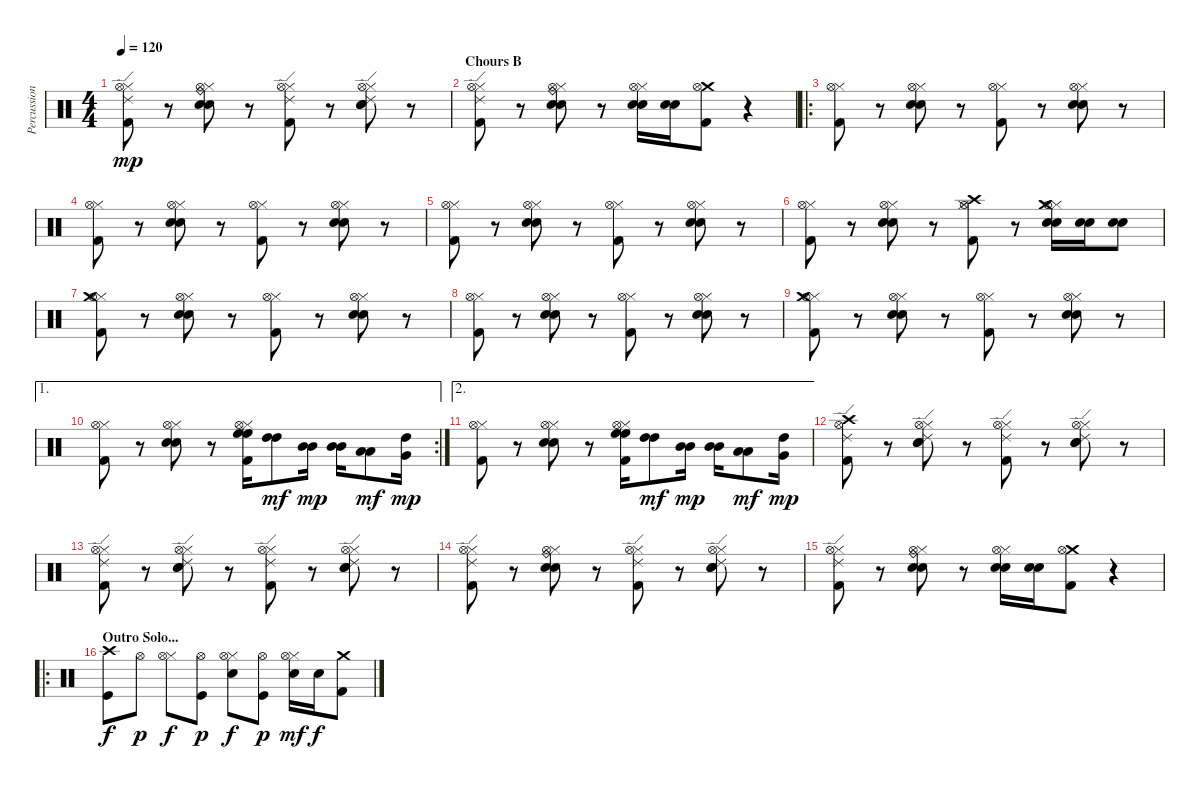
\track ("Percussion" "Percussion") {instrument percussion}
\staff {score}
\articulation defaults
\ts (4 4)
\tempo 120
\clef neutral
\ks c
("Hi-Hat (closed)" "Hi-Hat (open)" "Ride (edge) 2" "Kick (hit) 2").8{dy mp} r.8 ("Hi-Hat (closed)" "Hi-Hat (open)" "Ride (bell)" "Electric Snare (hit)" "Snare (hit) 2").8 r.8 ("Hi-Hat (closed)" "Hi-Hat (open)" "Ride (edge) 2" "Kick (hit) 2").8 r.8 ("Hi-Hat (closed)" "Hi-Hat (open)" "Ride (edge) 2" "Electric Snare (hit)" "Snare (hit) 2").8 r.8 |
\section ("" "Chours B")
("Hi-Hat (closed)" "Hi-Hat (open)" "Ride (edge) 2" "Kick (hit) 2").8 r.8 ("Hi-Hat (closed)" "Hi-Hat (open)" "Ride (bell)" "Electric Snare (hit)" "Snare (hit) 2").8 r.8 ("Hi-Hat (closed)" "Hi-Hat (open)" "Electric Snare (hit)" "Snare (hit) 2").16 ("Electric Snare (hit)" "Snare (hit) 2").16 ("Crash medium (hit)" "Hi-Hat (open)" "Kick (hit) 2").8 r.4 |
\ro
("Hi-Hat (closed)" "Hi-Hat (open)" "Kick (hit) 2").8 r.8 ("Hi-Hat (closed)" "Hi-Hat (open)" "Electric Snare (hit)" "Snare (hit) 2").8 r.8 ("Hi-Hat (closed)" "Hi-Hat (open)" "Kick (hit) 2").8 r.8 ("Hi-Hat (closed)" "Hi-Hat (open)" "Electric Snare (hit)" "Snare (hit) 2").8 r.8 |
("Hi-Hat (closed)" "Hi-Hat (open)" "Kick (hit) 2").8 r.8 ("Hi-Hat (closed)" "Hi-Hat (open)" "Electric Snare (hit)" "Snare (hit) 2").8 r.8 ("Hi-Hat (closed)" "Hi-Hat (open)" "Kick (hit) 2").8 r.8 ("Hi-Hat (closed)" "Hi-Hat (open)" "Electric Snare (hit)" "Snare (hit) 2").8 r.8 |
("Hi-Hat (closed)" "Hi-Hat (open)" "Kick (hit) 2").8 r.8 ("Hi-Hat (closed)" "Hi-Hat (open)" "Electric Snare (hit)" "Snare (hit) 2").8 r.8 ("Hi-Hat (closed)" "Hi-Hat (open)" "Kick (hit) 2").8 r.8 ("Hi-Hat (closed)" "Hi-Hat (open)" "Electric Snare (hit)" "Snare (hit) 2").8 r.8 |
("Hi-Hat (closed)" "Hi-Hat (open)" "Kick (hit) 2").8 r.8 ("Hi-Hat (closed)" "Hi-Hat (open)" "Electric Snare (hit)" "Snare (hit) 2").8 r.8 ("Hi-Hat (closed)" "Hi-Hat (open)" "Crash high (hit)" "Kick (hit) 2").8 r.8 ("Hi-Hat (closed)" "Hi-Hat (open)" "Crash medium (hit)" "Electric Snare (hit)" "Snare (hit) 2").16 ("Electric Snare (hit)" "Snare (hit) 2").16 ("Electric Snare (hit)" "Snare (hit) 2").8 |
("Hi-Hat (closed)" "Hi-Hat (open)" "Crash medium (hit)" "Kick (hit) 2").8 r.8 ("Hi-Hat (closed)" "Hi-Hat (open)" "Electric Snare (hit)" "Snare (hit) 2").8 r.8 ("Hi-Hat (closed)" "Hi-Hat (open)" "Kick (hit) 2").8 r.8 ("Hi-Hat (closed)" "Hi-Hat (open)" "Electric Snare (hit)" "Snare (hit) 2").8 r.8 |
("Hi-Hat (closed)" "Hi-Hat (open)" "Kick (hit) 2").8 r.8 ("Hi-Hat (closed)" "Hi-Hat (open)" "Electric Snare (hit)" "Snare (hit) 2").8 r.8 ("Hi-Hat (closed)" "Hi-Hat (open)" "Kick (hit) 2").8 r.8 ("Hi-Hat (closed)" "Hi-Hat (open)" "Electric Snare (hit)" "Snare (hit) 2").8 r.8 |
("Hi-Hat (closed)" "Hi-Hat (open)" "Crash medium (hit)" "Kick (hit) 2").8 r.8 ("Hi-Hat (closed)" "Hi-Hat (open)" "Electric Snare (hit)" "Snare (hit) 2").8 r.8 ("Hi-Hat (closed)" "Hi-Hat (open)" "Kick (hit) 2").8 r.8 ("Hi-Hat (closed)" "Hi-Hat (open)" "Electric Snare (hit)" "Snare (hit) 2").8 r.8 |
\ae 1
\rc 2
("Hi-Hat (closed)" "Hi-Hat (open)" "Kick (hit) 2").8 r.8 ("Hi-Hat (closed)" "Hi-Hat (open)" "Electric Snare (hit)" "Snare (hit) 2").8 r.8 ("Hi-Hat (closed)" "Hi-Hat (open)" "High Floor Tom (hit)" "High Floor Tom (hit)" "Kick (hit) 2").16 ("High Tom (hit)" "High Tom (hit)").8{dy mf} ("Mid Tom (hit)" "Mid Tom (hit)").16{dy mp} ("Mid Tom (hit)" "Mid Tom (hit)").16 ("Low Tom (hit)" "Low Tom (hit)").8{dy mf} ("High Tom (hit)" "Very Low Tom (hit)").16{dy mp} |
\ae 2
("Hi-Hat (closed)" "Hi-Hat (open)" "Kick (hit) 2").8 r.8 ("Hi-Hat (closed)" "Hi-Hat (open)" "Electric Snare (hit)" "Snare (hit) 2").8 r.8 ("Hi-Hat (closed)" "Hi-Hat (open)" "High Floor Tom (hit)" "High Floor Tom (hit)" "Kick (hit) 2").16 ("High Tom (hit)" "High Tom (hit)").8{dy mf} ("Mid Tom (hit)" "Mid Tom (hit)").16{dy mp} ("Mid Tom (hit)" "Mid Tom (hit)").16 ("Low Tom (hit)" "Low Tom (hit)").8{dy mf} ("High Tom (hit)" "Very Low Tom (hit)").16{dy mp} |
("Crash high (hit)" "Hi-Hat (open)" "Ride (edge) 2" "Kick (hit) 2").8 r.8 ("Hi-Hat (closed)" "Hi-Hat (open)" "Ride (edge) 2" "Electric Snare (hit)" "Snare (hit) 2").8 r.8 ("Hi-Hat (closed)" "Hi-Hat (open)" "Ride (edge) 2" "Kick (hit) 2").8 r.8 ("Hi-Hat (closed)" "Hi-Hat (open)" "Ride (edge) 2" "Electric Snare (hit)" "Snare (hit) 2").8 r.8 |
("Hi-Hat (closed)" "Hi-Hat (open)" "Ride (edge) 2" "Kick (hit) 2").8 r.8 ("Hi-Hat (closed)" "Hi-Hat (open)" "Ride (edge) 2" "Electric Snare (hit)" "Snare (hit) 2").8 r.8 ("Hi-Hat (closed)" "Hi-Hat (open)" "Ride (edge) 2" "Kick (hit) 2").8 r.8 ("Hi-Hat (closed)" "Hi-Hat (open)" "Ride (edge) 2" "Electric Snare (hit)" "Snare (hit) 2").8 r.8 |
("Hi-Hat (closed)" "Hi-Hat (open)" "Ride (edge) 2" "Kick (hit) 2").8 r.8 ("Hi-Hat (closed)" "Hi-Hat (open)" "Ride (bell)" "Electric Snare (hit)" "Snare (hit) 2").8 r.8 ("Hi-Hat (closed)" "Hi-Hat (open)" "Ride (edge) 2" "Kick (hit) 2").8 r.8 ("Hi-Hat (closed)" "Hi-Hat (open)" "Ride (edge) 2" "Electric Snare (hit)" "Snare (hit) 2").8 r.8 |
("Hi-Hat (closed)" "Hi-Hat (open)" "Ride (edge) 2" "Kick (hit) 2").8 r.8 ("Hi-Hat (closed)" "Hi-Hat (open)" "Ride (bell)" "Electric Snare (hit)" "Snare (hit) 2").8 r.8 ("Hi-Hat (closed)" "Hi-Hat (open)" "Electric Snare (hit)" "Snare (hit) 2").16 ("Electric Snare (hit)" "Snare (hit) 2").16 ("Crash medium (hit)" "Hi-Hat (open)" "Kick (hit) 2").8 r.4 |
\ro
\section ("" "Outro Solo...")
("Crash high (hit)" "Kick (hit)").8{dy f} "Hi-Hat (open)".8{dy p} ("Hi-Hat (closed)" "Hi-Hat (open)").8{dy f} ("Hi-Hat (open)" "Kick (hit)").8{dy p} ("Hi-Hat (closed)" "Hi-Hat (open)" "Snare (hit) 2").8{dy f} ("Hi-Hat (open)" "Kick (hit)").8{dy p} ("Hi-Hat (closed)" "Hi-Hat (open)" "Snare (hit) 2").16{dy mf} "Snare (hit) 2".16{dy f} ("Crash medium (hit)" "Kick (hit) 2").8
